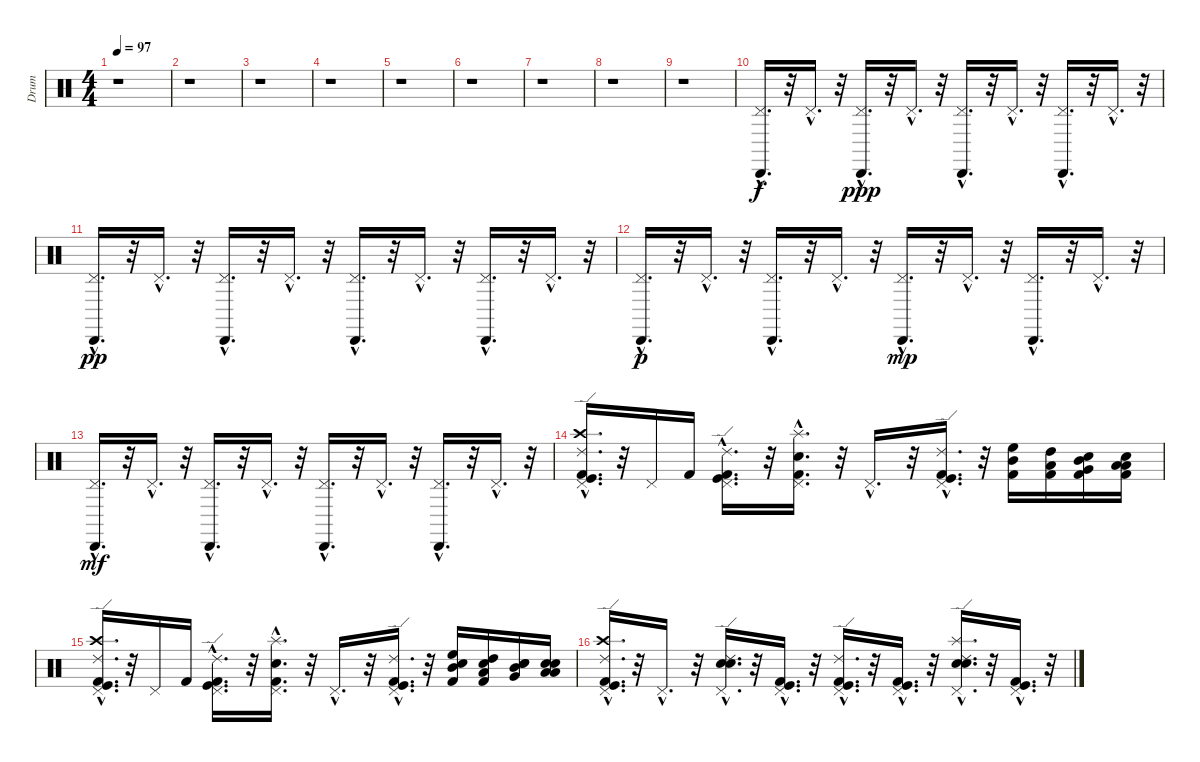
\track ("Drum" "Drum") {instrument percussion}
\staff {score}
\articulation defaults
\ts (4 4)
\tempo 97
\clef neutral
\ks c
r.1{dy mf} |
r.1 |
r.1 |
r.1 |
r.1 |
r.1 |
r.1 |
r.1 |
r.1 |
("Cabasa (hit)"{hac} "Pedal Hi-Hat (hit)"{hac}).16{d dy f} r.32 "Pedal Hi-Hat (hit)"{hac}.16{d} r.32 ("Cabasa (hit)"{hac} "Pedal Hi-Hat (hit)"{hac}).16{d dy ppp} r.32 "Pedal Hi-Hat (hit)"{hac}.16{d} r.32 ("Pedal Hi-Hat (hit)"{hac} "Cabasa (hit)"{hac}).16{d} r.32 "Pedal Hi-Hat (hit)"{hac}.16{d} r.32 ("Pedal Hi-Hat (hit)"{hac} "Cabasa (hit)"{hac}).16{d} r.32 "Pedal Hi-Hat (hit)"{hac}.16{d} r.32 |
("Pedal Hi-Hat (hit)"{hac} "Cabasa (hit)"{hac}).16{d dy pp} r.32 "Pedal Hi-Hat (hit)"{hac}.16{d} r.32 ("Pedal Hi-Hat (hit)"{hac} "Cabasa (hit)"{hac}).16{d} r.32 "Pedal Hi-Hat (hit)"{hac}.16{d} r.32 ("Cabasa (hit)"{hac} "Pedal Hi-Hat (hit)"{hac}).16{d} r.32 "Pedal Hi-Hat (hit)"{hac}.16{d} r.32 ("Cabasa (hit)"{hac} "Pedal Hi-Hat (hit)"{hac}).16{d} r.32 "Pedal Hi-Hat (hit)"{hac}.16{d} r.32 |
("Pedal Hi-Hat (hit)"{hac} "Cabasa (hit)"{hac}).16{d dy p} r.32 "Pedal Hi-Hat (hit)"{hac}.16{d} r.32 ("Pedal Hi-Hat (hit)"{hac} "Cabasa (hit)"{hac}).16{d} r.32 "Pedal Hi-Hat (hit)"{hac}.16{d} r.32 ("Cabasa (hit)"{hac} "Pedal Hi-Hat (hit)"{hac}).16{d dy mp} r.32 "Pedal Hi-Hat (hit)"{hac}.16{d} r.32 ("Cabasa (hit)"{hac} "Pedal Hi-Hat (hit)"{hac}).16{d} r.32 "Pedal Hi-Hat (hit)"{hac}.16{d} r.32 |
("Pedal Hi-Hat (hit)"{hac} "Cabasa (hit)"{hac}).16{d dy mf} r.32 "Pedal Hi-Hat (hit)"{hac}.16{d} r.32 ("Pedal Hi-Hat (hit)"{hac} "Cabasa (hit)"{hac}).16{d} r.32 "Pedal Hi-Hat (hit)"{hac}.16{d} r.32 ("Cabasa (hit)"{hac} "Pedal Hi-Hat (hit)"{hac}).16{d} r.32 "Pedal Hi-Hat (hit)"{hac}.16{d} r.32 ("Cabasa (hit)"{hac} "Pedal Hi-Hat (hit)"{hac}).16{d} r.32 "Pedal Hi-Hat (hit)"{hac}.16{d} r.32 |
("Ride (edge) 2"{hac} "Pedal Hi-Hat (hit)"{hac} "Kick (hit) 2"{hac} "Crash high (hit)"{hac} "Kick (hit)"{hac}).16{d} r.32 "Pedal Hi-Hat (hit)".16 "Kick (hit) 2".16 ("Kick (hit)"{hac} "Ride (edge) 2"{hac} "Kick (hit) 2"{hac} "Pedal Hi-Hat (hit)"{hac}).16{d} r.32 ("Pedal Hi-Hat (hit)"{hac} "Snare (hit) 2"{hac} "Kick (hit) 2"{hac} "Splash (hit)"{hac}).16{d} r.32 "Pedal Hi-Hat (hit)"{hac}.16{d} r.32 ("Pedal Hi-Hat (hit)"{hac} "Ride (edge) 2"{hac} "Kick (hit)"{hac} "Kick (hit) 2"{hac}).16{d} r.32 ("Kick (hit) 2" "Mid Tom (hit)" "High Floor Tom (hit)").16 ("Low Tom (hit)" "Kick (hit) 2" "High Tom (hit)").16 ("Very Low Tom (hit)" "Electric Snare (hit)" "Mid Tom (hit)" "Kick (hit) 2").16 ("Electric Snare (hit)" "Kick (hit) 2" "Low Floor Tom (hit)" "Low Tom (hit)").16 |
("Ride (edge) 2"{hac} "Pedal Hi-Hat (hit)"{hac} "Kick (hit) 2"{hac} "Crash high (hit)"{hac} "Kick (hit)"{hac}).16{d} r.32 "Pedal Hi-Hat (hit)".16 "Kick (hit) 2".16 ("Pedal Hi-Hat (hit)"{hac} "Kick (hit) 2"{hac} "Ride (edge) 2"{hac} "Kick (hit)"{hac}).16{d} r.32 ("Snare (hit) 2"{hac} "Kick (hit) 2"{hac} "Splash (hit)"{hac} "Pedal Hi-Hat (hit)"{hac}).16{d} r.32 "Pedal Hi-Hat (hit)"{hac}.16{d} r.32 ("Pedal Hi-Hat (hit)"{hac} "Kick (hit) 2"{hac} "Kick (hit)"{hac} "Ride (edge) 2"{hac}).16{d} r.32 ("Mid Tom (hit)" "Kick (hit) 2" "High Floor Tom (hit)" "Electric Snare (hit)").16 ("Kick (hit) 2" "Low Tom (hit)" "Electric Snare (hit)" "High Tom (hit)").16 ("Snare (hit) 2" "Very Low Tom (hit)" "Electric Snare (hit)" "Mid Tom (hit)").16 ("Electric Snare (hit)" "Snare (hit) 2" "Low Tom (hit)" "Low Floor Tom (hit)").16 |
("Crash high (hit)"{hac} "Kick (hit)"{hac} "Kick (hit) 2"{hac} "Ride (edge) 2"{hac} "Pedal Hi-Hat (hit)"{hac}).16{d} r.32 "Pedal Hi-Hat (hit)"{hac}.16{d} r.32 ("Electric Snare (hit)"{hac} "Snare (hit) 2"{hac} "Ride (edge) 2"{hac} "Pedal Hi-Hat (hit)"{hac}).16{d} r.32 ("Kick (hit) 2"{hac} "Kick (hit)"{hac} "Pedal Hi-Hat (hit)"{hac}).16{d} r.32 ("Kick (hit) 2"{hac} "Kick (hit)"{hac} "Ride (edge) 2"{hac} "Pedal Hi-Hat (hit)"{hac}).16{d} r.32 ("Kick (hit) 2"{hac} "Kick (hit)"{hac} "Pedal Hi-Hat (hit)"{hac}).16{d} r.32 ("Splash (hit)"{hac} "Electric Snare (hit)"{hac} "Snare (hit) 2"{hac} "Ride (edge) 2"{hac} "Pedal Hi-Hat (hit)"{hac}).16{d} r.32 ("Kick (hit)"{hac} "Pedal Hi-Hat (hit)"{hac} "Kick (hit) 2"{hac}).16{d} r.32
